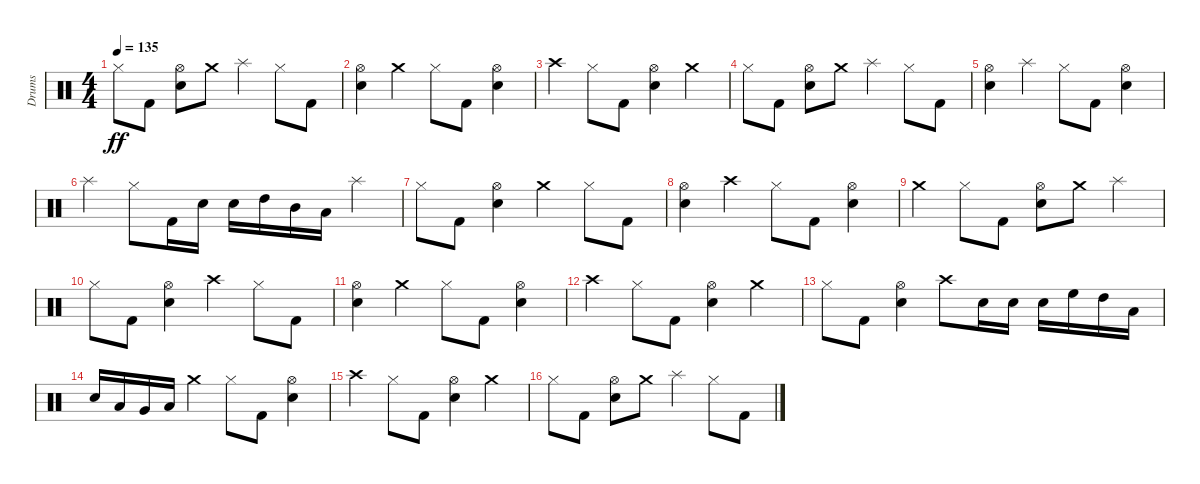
\track ("Drums" "Drums") {instrument percussion}
\staff {score}
\articulation defaults
\ts (4 4)
\tempo 135
\clef neutral
\ks c "Hi-Hat (closed)".8{dy ff} "Kick (hit) 2".8
("Electric Snare (hit)" "Hi-Hat (open)").8 "Crash medium (hit)".8 "Splash (hit)".4 "Hi-Hat (closed)".8 "Kick (hit) 2".8 |
("Electric Snare (hit)" "Hi-Hat (open)").4 "Crash medium (hit)".4 "Hi-Hat (closed)".8 "Kick (hit) 2".8 ("Electric Snare (hit)" "Hi-Hat (open)").4 |
"Crash high (hit)".4 "Hi-Hat (closed)".8 "Kick (hit) 2".8 ("Electric Snare (hit)" "Hi-Hat (open)").4 "Crash medium (hit)".4 |
"Hi-Hat (closed)".8 "Kick (hit) 2".8 ("Electric Snare (hit)" "Hi-Hat (open)").8 "Crash medium (hit)".8 "Splash (hit)".4 "Hi-Hat (closed)".8 "Kick (hit) 2".8 |
("Electric Snare (hit)" "Hi-Hat (open)").4 "Splash (hit)".4 "Hi-Hat (closed)".8 "Kick (hit) 2".8 ("Electric Snare (hit)" "Hi-Hat (open)").4 |
"Splash (hit)".4 "Hi-Hat (closed)".8 "Kick (hit) 2".16 "Electric Snare (hit)".16 "Electric Snare (hit)".16 "High Tom (hit)".16 "Mid Tom (hit)".16 "Low Tom (hit)".16 "Splash (hit)".4 |
"Hi-Hat (closed)".8 "Kick (hit) 2".8 ("Electric Snare (hit)" "Hi-Hat (open)").4 "Crash medium (hit)".4 "Hi-Hat (closed)".8 "Kick (hit) 2".8 |
("Electric Snare (hit)" "Hi-Hat (open)").4 "Crash high (hit)".4 "Hi-Hat (closed)".8 "Kick (hit) 2".8 ("Electric Snare (hit)" "Hi-Hat (open)").4 |
"Crash medium (hit)".4 "Hi-Hat (closed)".8 "Kick (hit) 2".8 ("Electric Snare (hit)" "Hi-Hat (open)").8 "Crash medium (hit)".8 "Splash (hit)".4 |
"Hi-Hat (closed)".8 "Kick (hit) 2".8 ("Electric Snare (hit)" "Hi-Hat (open)").4 "Crash high (hit)".4 "Hi-Hat (closed)".8 "Kick (hit) 2".8 |
("Electric Snare (hit)" "Hi-Hat (open)").4 "Crash medium (hit)".4 "Hi-Hat (closed)".8 "Kick (hit) 2".8 ("Electric Snare (hit)" "Hi-Hat (open)").4 |
"Crash high (hit)".4 "Hi-Hat (closed)".8 "Kick (hit) 2".8 ("Electric Snare (hit)" "Hi-Hat (open)").4 "Crash medium (hit)".4 |
"Hi-Hat (closed)".8 "Kick (hit) 2".8 ("Electric Snare (hit)" "Hi-Hat (open)").4 "Crash high (hit)".8 "Electric Snare (hit)".16 "Electric Snare (hit)".16 "Electric Snare (hit)".16 "High Floor Tom (hit)".16 "High Tom (hit)".16 "Low Tom (hit)".16 |
"Electric Snare (hit)".16 "Low Tom (hit)".16 "Very Low Tom (hit)".16 "Low Floor Tom (hit)".16 "Crash medium (hit)".4 "Hi-Hat (closed)".8 "Kick (hit) 2".8 ("Electric Snare (hit)" "Hi-Hat (open)").4 |
"Crash high (hit)".4 "Hi-Hat (closed)".8 "Kick (hit) 2".8 ("Electric Snare (hit)" "Hi-Hat (open)").4 "Crash medium (hit)".4 |
"Hi-Hat (closed)".8 "Kick (hit) 2".8 ("Electric Snare (hit)" "Hi-Hat (open)").8 "Crash medium (hit)".8 "Splash (hit)".4 "Hi-Hat (closed)".8 "Kick (hit) 2".8
